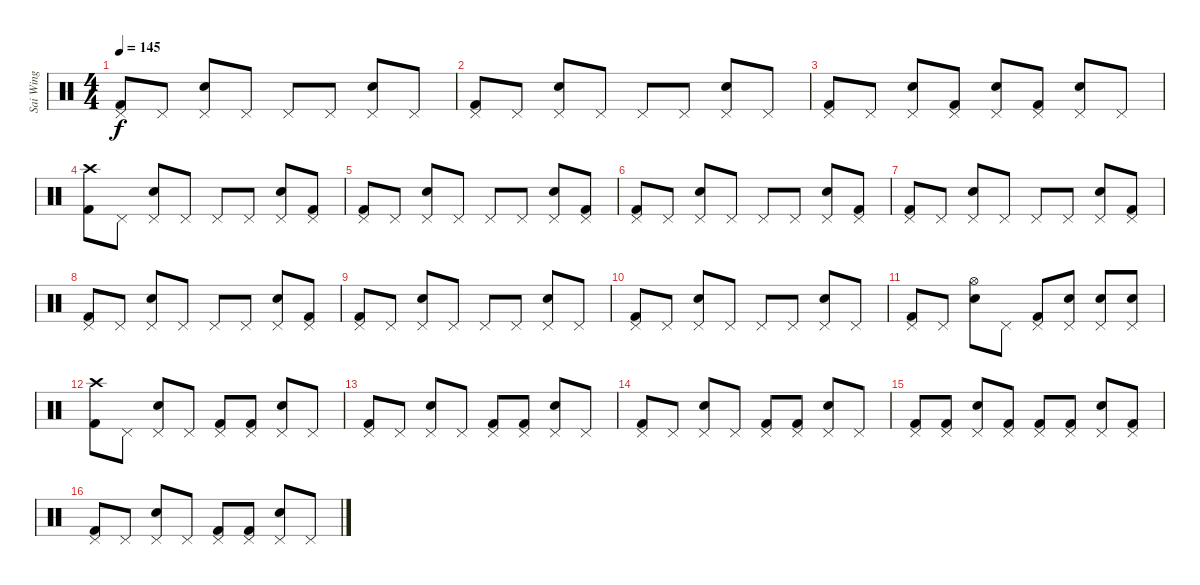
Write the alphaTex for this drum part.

\track ("Sai Wing" "Sai Wing") {instrument percussion}
\staff {score}
\articulation defaults
\ts (4 4)
\tempo 145
\clef neutral
\ks c
("Pedal Hi-Hat (hit)" "Kick (hit) 2").8{dy f} "Pedal Hi-Hat (hit)".8 ("Pedal Hi-Hat (hit)" "Snare (hit) 2").8 "Pedal Hi-Hat (hit)".8 "Pedal Hi-Hat (hit)".8 "Pedal Hi-Hat (hit)".8 ("Pedal Hi-Hat (hit)" "Snare (hit) 2").8 "Pedal Hi-Hat (hit)".8 |
("Pedal Hi-Hat (hit)" "Kick (hit) 2").8 "Pedal Hi-Hat (hit)".8 ("Pedal Hi-Hat (hit)" "Snare (hit) 2").8 "Pedal Hi-Hat (hit)".8 "Pedal Hi-Hat (hit)".8 "Pedal Hi-Hat (hit)".8 ("Pedal Hi-Hat (hit)" "Snare (hit) 2").8 "Pedal Hi-Hat (hit)".8 |
("Pedal Hi-Hat (hit)" "Kick (hit) 2").8 "Pedal Hi-Hat (hit)".8 ("Pedal Hi-Hat (hit)" "Snare (hit) 2").8 ("Pedal Hi-Hat (hit)" "Kick (hit) 2").8 ("Pedal Hi-Hat (hit)" "Snare (hit) 2").8 ("Pedal Hi-Hat (hit)" "Kick (hit) 2").8 ("Pedal Hi-Hat (hit)" "Snare (hit) 2").8 "Pedal Hi-Hat (hit)".8 |
("Crash high (hit)" "Kick (hit) 2").8 "Pedal Hi-Hat (hit)".8 ("Pedal Hi-Hat (hit)" "Snare (hit) 2").8 "Pedal Hi-Hat (hit)".8 "Pedal Hi-Hat (hit)".8 "Pedal Hi-Hat (hit)".8 ("Pedal Hi-Hat (hit)" "Snare (hit) 2").8 ("Pedal Hi-Hat (hit)" "Kick (hit) 2").8 |
("Pedal Hi-Hat (hit)" "Kick (hit) 2").8 "Pedal Hi-Hat (hit)".8 ("Pedal Hi-Hat (hit)" "Snare (hit) 2").8 "Pedal Hi-Hat (hit)".8 "Pedal Hi-Hat (hit)".8 "Pedal Hi-Hat (hit)".8 ("Pedal Hi-Hat (hit)" "Snare (hit) 2").8 ("Pedal Hi-Hat (hit)" "Kick (hit) 2").8 |
("Pedal Hi-Hat (hit)" "Kick (hit) 2").8 "Pedal Hi-Hat (hit)".8 ("Pedal Hi-Hat (hit)" "Snare (hit) 2").8 "Pedal Hi-Hat (hit)".8 "Pedal Hi-Hat (hit)".8 "Pedal Hi-Hat (hit)".8 ("Pedal Hi-Hat (hit)" "Snare (hit) 2").8 ("Pedal Hi-Hat (hit)" "Kick (hit) 2").8 |
("Pedal Hi-Hat (hit)" "Kick (hit) 2").8 "Pedal Hi-Hat (hit)".8 ("Pedal Hi-Hat (hit)" "Snare (hit) 2").8 "Pedal Hi-Hat (hit)".8 "Pedal Hi-Hat (hit)".8 "Pedal Hi-Hat (hit)".8 ("Pedal Hi-Hat (hit)" "Snare (hit) 2").8 ("Pedal Hi-Hat (hit)" "Kick (hit) 2").8 |
("Pedal Hi-Hat (hit)" "Kick (hit) 2").8 "Pedal Hi-Hat (hit)".8 ("Pedal Hi-Hat (hit)" "Snare (hit) 2").8 "Pedal Hi-Hat (hit)".8 "Pedal Hi-Hat (hit)".8 "Pedal Hi-Hat (hit)".8 ("Pedal Hi-Hat (hit)" "Snare (hit) 2").8 ("Pedal Hi-Hat (hit)" "Kick (hit) 2").8 |
("Pedal Hi-Hat (hit)" "Kick (hit) 2").8 "Pedal Hi-Hat (hit)".8 ("Pedal Hi-Hat (hit)" "Snare (hit) 2").8 "Pedal Hi-Hat (hit)".8 "Pedal Hi-Hat (hit)".8 "Pedal Hi-Hat (hit)".8 ("Pedal Hi-Hat (hit)" "Snare (hit) 2").8 "Pedal Hi-Hat (hit)".8 |
("Pedal Hi-Hat (hit)" "Kick (hit) 2").8 "Pedal Hi-Hat (hit)".8 ("Pedal Hi-Hat (hit)" "Snare (hit) 2").8 "Pedal Hi-Hat (hit)".8 "Pedal Hi-Hat (hit)".8 "Pedal Hi-Hat (hit)".8 ("Pedal Hi-Hat (hit)" "Snare (hit) 2").8 "Pedal Hi-Hat (hit)".8 |
("Pedal Hi-Hat (hit)" "Kick (hit) 2").8 "Pedal Hi-Hat (hit)".8 ("Hi-Hat (open)" "Snare (hit) 2").8 "Pedal Hi-Hat (hit)".8 ("Pedal Hi-Hat (hit)" "Kick (hit) 2").8 ("Pedal Hi-Hat (hit)" "Snare (hit) 2").8 ("Pedal Hi-Hat (hit)" "Snare (hit) 2").8 ("Pedal Hi-Hat (hit)" "Snare (hit) 2").8 |
("Crash high (hit)" "Kick (hit) 2").8 "Pedal Hi-Hat (hit)".8 ("Pedal Hi-Hat (hit)" "Snare (hit) 2").8 "Pedal Hi-Hat (hit)".8 ("Pedal Hi-Hat (hit)" "Kick (hit) 2").8 ("Pedal Hi-Hat (hit)" "Kick (hit) 2").8 ("Pedal Hi-Hat (hit)" "Snare (hit) 2").8 "Pedal Hi-Hat (hit)".8 |
("Pedal Hi-Hat (hit)" "Kick (hit) 2").8 "Pedal Hi-Hat (hit)".8 ("Pedal Hi-Hat (hit)" "Snare (hit) 2").8 "Pedal Hi-Hat (hit)".8 ("Pedal Hi-Hat (hit)" "Kick (hit) 2").8 ("Pedal Hi-Hat (hit)" "Kick (hit) 2").8 ("Pedal Hi-Hat (hit)" "Snare (hit) 2").8 "Pedal Hi-Hat (hit)".8 |
("Pedal Hi-Hat (hit)" "Kick (hit) 2").8 "Pedal Hi-Hat (hit)".8 ("Pedal Hi-Hat (hit)" "Snare (hit) 2").8 "Pedal Hi-Hat (hit)".8 ("Pedal Hi-Hat (hit)" "Kick (hit) 2").8 ("Pedal Hi-Hat (hit)" "Kick (hit) 2").8 ("Pedal Hi-Hat (hit)" "Snare (hit) 2").8 "Pedal Hi-Hat (hit)".8 |
("Pedal Hi-Hat (hit)" "Kick (hit) 2").8 ("Pedal Hi-Hat (hit)" "Kick (hit) 2").8 ("Pedal Hi-Hat (hit)" "Snare (hit) 2").8 ("Pedal Hi-Hat (hit)" "Kick (hit) 2").8 ("Pedal Hi-Hat (hit)" "Kick (hit) 2").8 ("Pedal Hi-Hat (hit)" "Kick (hit) 2").8 ("Pedal Hi-Hat (hit)" "Snare (hit) 2").8 ("Pedal Hi-Hat (hit)" "Kick (hit) 2").8 |
("Pedal Hi-Hat (hit)" "Kick (hit) 2").8 "Pedal Hi-Hat (hit)".8 ("Pedal Hi-Hat (hit)" "Snare (hit) 2").8 "Pedal Hi-Hat (hit)".8 ("Pedal Hi-Hat (hit)" "Kick (hit) 2").8 ("Pedal Hi-Hat (hit)" "Kick (hit) 2").8 ("Pedal Hi-Hat (hit)" "Snare (hit) 2").8 "Pedal Hi-Hat (hit)".8
